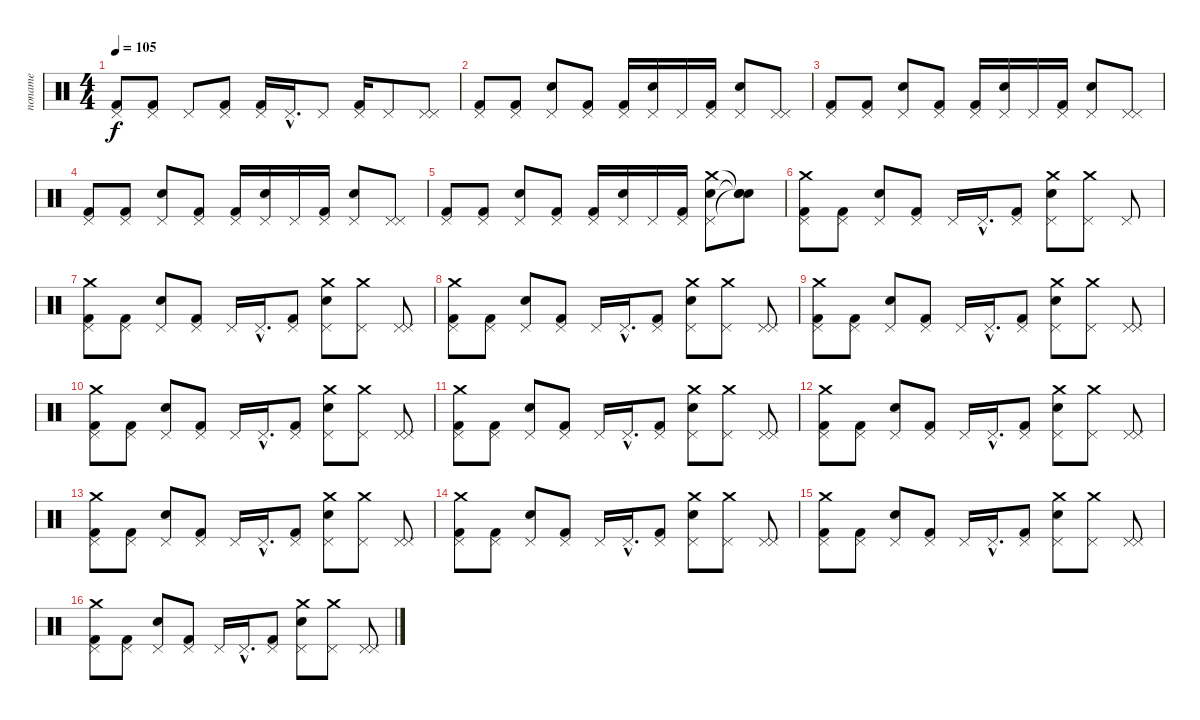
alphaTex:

\track ("noname" "noname") {instrument percussion}
\staff {score}
\articulation defaults
\ts (4 4)
\tempo 105
\clef neutral
\ks c
("Pedal Hi-Hat (hit)" "Kick (hit) 2").8{dy f} ("Pedal Hi-Hat (hit)" "Kick (hit) 2").8 "Pedal Hi-Hat (hit)".8 ("Pedal Hi-Hat (hit)" "Kick (hit) 2").8 ("Pedal Hi-Hat (hit)" "Kick (hit) 2").16 "Pedal Hi-Hat (hit)"{hac}.16{d} "Pedal Hi-Hat (hit)".8 ("Pedal Hi-Hat (hit)" "Kick (hit) 2").16 "Pedal Hi-Hat (hit)".8 ("Pedal Hi-Hat (hit)" "Pedal Hi-Hat (hit)").8 |
("Pedal Hi-Hat (hit)" "Kick (hit) 2").8 ("Pedal Hi-Hat (hit)" "Kick (hit) 2").8 ("Pedal Hi-Hat (hit)" "Snare (hit) 2").8 ("Pedal Hi-Hat (hit)" "Kick (hit) 2").8 ("Pedal Hi-Hat (hit)" "Kick (hit) 2").16 ("Pedal Hi-Hat (hit)" "Snare (hit) 2").16 "Pedal Hi-Hat (hit)".16 ("Pedal Hi-Hat (hit)" "Kick (hit) 2").16 ("Pedal Hi-Hat (hit)" "Snare (hit) 2").8 ("Pedal Hi-Hat (hit)" "Pedal Hi-Hat (hit)").8 |
("Pedal Hi-Hat (hit)" "Kick (hit) 2").8 ("Pedal Hi-Hat (hit)" "Kick (hit) 2").8 ("Pedal Hi-Hat (hit)" "Snare (hit) 2").8 ("Pedal Hi-Hat (hit)" "Kick (hit) 2").8 ("Pedal Hi-Hat (hit)" "Kick (hit) 2").16 ("Pedal Hi-Hat (hit)" "Snare (hit) 2").16 "Pedal Hi-Hat (hit)".16 ("Pedal Hi-Hat (hit)" "Kick (hit) 2").16 ("Pedal Hi-Hat (hit)" "Snare (hit) 2").8 ("Pedal Hi-Hat (hit)" "Pedal Hi-Hat (hit)").8 |
("Pedal Hi-Hat (hit)" "Kick (hit) 2").8 ("Pedal Hi-Hat (hit)" "Kick (hit) 2").8 ("Pedal Hi-Hat (hit)" "Snare (hit) 2").8 ("Pedal Hi-Hat (hit)" "Kick (hit) 2").8 ("Pedal Hi-Hat (hit)" "Kick (hit) 2").16 ("Pedal Hi-Hat (hit)" "Snare (hit) 2").16 "Pedal Hi-Hat (hit)".16 ("Pedal Hi-Hat (hit)" "Kick (hit) 2").16 ("Pedal Hi-Hat (hit)" "Snare (hit) 2").8 ("Pedal Hi-Hat (hit)" "Pedal Hi-Hat (hit)").8 |
("Pedal Hi-Hat (hit)" "Kick (hit) 2").8 ("Pedal Hi-Hat (hit)" "Kick (hit) 2").8 ("Pedal Hi-Hat (hit)" "Snare (hit) 2").8 ("Pedal Hi-Hat (hit)" "Kick (hit) 2").8 ("Pedal Hi-Hat (hit)" "Kick (hit) 2").16 ("Pedal Hi-Hat (hit)" "Snare (hit) 2").16 "Pedal Hi-Hat (hit)".16 ("Pedal Hi-Hat (hit)" "Kick (hit) 2").16 ("Pedal Hi-Hat (hit)" "Crash medium (hit)" "Snare (hit) 2").8 ("Snare (hit)"{t} "Snare (hit)"{t} "Snare (hit)"{t}).8 |
("Pedal Hi-Hat (hit)" "Crash medium (hit)" "Kick (hit) 2").8 ("Pedal Hi-Hat (hit)" "Kick (hit) 2").8 ("Pedal Hi-Hat (hit)" "Snare (hit) 2").8 ("Pedal Hi-Hat (hit)" "Kick (hit) 2").8 "Pedal Hi-Hat (hit)".16 "Pedal Hi-Hat (hit)"{hac}.16{d} ("Pedal Hi-Hat (hit)" "Kick (hit) 2").8 ("Pedal Hi-Hat (hit)" "Crash medium (hit)" "Snare (hit) 2").8 ("Pedal Hi-Hat (hit)" "Crash medium (hit)").8 "Pedal Hi-Hat (hit)".8 |
("Pedal Hi-Hat (hit)" "Crash medium (hit)" "Kick (hit) 2").8 ("Pedal Hi-Hat (hit)" "Kick (hit) 2").8 ("Pedal Hi-Hat (hit)" "Snare (hit) 2").8 ("Pedal Hi-Hat (hit)" "Kick (hit) 2").8 "Pedal Hi-Hat (hit)".16 "Pedal Hi-Hat (hit)"{hac}.16{d} ("Pedal Hi-Hat (hit)" "Kick (hit) 2").8 ("Pedal Hi-Hat (hit)" "Crash medium (hit)" "Snare (hit) 2").8 ("Pedal Hi-Hat (hit)" "Crash medium (hit)").8 ("Pedal Hi-Hat (hit)" "Pedal Hi-Hat (hit)").8 |
("Pedal Hi-Hat (hit)" "Crash medium (hit)" "Kick (hit) 2").8 ("Pedal Hi-Hat (hit)" "Kick (hit) 2").8 ("Pedal Hi-Hat (hit)" "Snare (hit) 2").8 ("Pedal Hi-Hat (hit)" "Kick (hit) 2").8 "Pedal Hi-Hat (hit)".16 "Pedal Hi-Hat (hit)"{hac}.16{d} ("Pedal Hi-Hat (hit)" "Kick (hit) 2").8 ("Pedal Hi-Hat (hit)" "Crash medium (hit)" "Snare (hit) 2").8 ("Pedal Hi-Hat (hit)" "Crash medium (hit)").8 ("Pedal Hi-Hat (hit)" "Pedal Hi-Hat (hit)").8 |
("Pedal Hi-Hat (hit)" "Crash medium (hit)" "Kick (hit) 2").8 ("Pedal Hi-Hat (hit)" "Kick (hit) 2").8 ("Pedal Hi-Hat (hit)" "Snare (hit) 2").8 ("Pedal Hi-Hat (hit)" "Kick (hit) 2").8 "Pedal Hi-Hat (hit)".16 "Pedal Hi-Hat (hit)"{hac}.16{d} ("Pedal Hi-Hat (hit)" "Kick (hit) 2").8 ("Pedal Hi-Hat (hit)" "Crash medium (hit)" "Snare (hit) 2").8 ("Pedal Hi-Hat (hit)" "Crash medium (hit)").8 ("Pedal Hi-Hat (hit)" "Pedal Hi-Hat (hit)").8 |
("Pedal Hi-Hat (hit)" "Crash medium (hit)" "Kick (hit) 2").8 ("Pedal Hi-Hat (hit)" "Kick (hit) 2").8 ("Pedal Hi-Hat (hit)" "Snare (hit) 2").8 ("Pedal Hi-Hat (hit)" "Kick (hit) 2").8 "Pedal Hi-Hat (hit)".16 "Pedal Hi-Hat (hit)"{hac}.16{d} ("Pedal Hi-Hat (hit)" "Kick (hit) 2").8 ("Pedal Hi-Hat (hit)" "Crash medium (hit)" "Snare (hit) 2").8 ("Pedal Hi-Hat (hit)" "Crash medium (hit)").8 ("Pedal Hi-Hat (hit)" "Pedal Hi-Hat (hit)").8 |
("Pedal Hi-Hat (hit)" "Crash medium (hit)" "Kick (hit) 2").8 ("Pedal Hi-Hat (hit)" "Kick (hit) 2").8 ("Pedal Hi-Hat (hit)" "Snare (hit) 2").8 ("Pedal Hi-Hat (hit)" "Kick (hit) 2").8 "Pedal Hi-Hat (hit)".16 "Pedal Hi-Hat (hit)"{hac}.16{d} ("Pedal Hi-Hat (hit)" "Kick (hit) 2").8 ("Pedal Hi-Hat (hit)" "Crash medium (hit)" "Snare (hit) 2").8 ("Pedal Hi-Hat (hit)" "Crash medium (hit)").8 ("Pedal Hi-Hat (hit)" "Pedal Hi-Hat (hit)").8 |
("Pedal Hi-Hat (hit)" "Crash medium (hit)" "Kick (hit) 2").8 ("Pedal Hi-Hat (hit)" "Kick (hit) 2").8 ("Pedal Hi-Hat (hit)" "Snare (hit) 2").8 ("Pedal Hi-Hat (hit)" "Kick (hit) 2").8 "Pedal Hi-Hat (hit)".16 "Pedal Hi-Hat (hit)"{hac}.16{d} ("Pedal Hi-Hat (hit)" "Kick (hit) 2").8 ("Pedal Hi-Hat (hit)" "Crash medium (hit)" "Snare (hit) 2").8 ("Pedal Hi-Hat (hit)" "Crash medium (hit)").8 ("Pedal Hi-Hat (hit)" "Pedal Hi-Hat (hit)").8 |
("Pedal Hi-Hat (hit)" "Crash medium (hit)" "Kick (hit) 2").8 ("Pedal Hi-Hat (hit)" "Kick (hit) 2").8 ("Pedal Hi-Hat (hit)" "Snare (hit) 2").8 ("Pedal Hi-Hat (hit)" "Kick (hit) 2").8 "Pedal Hi-Hat (hit)".16 "Pedal Hi-Hat (hit)"{hac}.16{d} ("Pedal Hi-Hat (hit)" "Kick (hit) 2").8 ("Pedal Hi-Hat (hit)" "Crash medium (hit)" "Snare (hit) 2").8 ("Pedal Hi-Hat (hit)" "Crash medium (hit)").8 ("Pedal Hi-Hat (hit)" "Pedal Hi-Hat (hit)").8 |
("Pedal Hi-Hat (hit)" "Crash medium (hit)" "Kick (hit) 2").8 ("Pedal Hi-Hat (hit)" "Kick (hit) 2").8 ("Pedal Hi-Hat (hit)" "Snare (hit) 2").8 ("Pedal Hi-Hat (hit)" "Kick (hit) 2").8 "Pedal Hi-Hat (hit)".16 "Pedal Hi-Hat (hit)"{hac}.16{d} ("Pedal Hi-Hat (hit)" "Kick (hit) 2").8 ("Pedal Hi-Hat (hit)" "Crash medium (hit)" "Snare (hit) 2").8 ("Pedal Hi-Hat (hit)" "Crash medium (hit)").8 ("Pedal Hi-Hat (hit)" "Pedal Hi-Hat (hit)").8 |
("Pedal Hi-Hat (hit)" "Crash medium (hit)" "Kick (hit) 2").8 ("Pedal Hi-Hat (hit)" "Kick (hit) 2").8 ("Pedal Hi-Hat (hit)" "Snare (hit) 2").8 ("Pedal Hi-Hat (hit)" "Kick (hit) 2").8 "Pedal Hi-Hat (hit)".16 "Pedal Hi-Hat (hit)"{hac}.16{d} ("Pedal Hi-Hat (hit)" "Kick (hit) 2").8 ("Pedal Hi-Hat (hit)" "Crash medium (hit)" "Snare (hit) 2").8 ("Pedal Hi-Hat (hit)" "Crash medium (hit)").8 ("Pedal Hi-Hat (hit)" "Pedal Hi-Hat (hit)").8 |
("Pedal Hi-Hat (hit)" "Crash medium (hit)" "Kick (hit) 2").8 ("Pedal Hi-Hat (hit)" "Kick (hit) 2").8 ("Pedal Hi-Hat (hit)" "Snare (hit) 2").8 ("Pedal Hi-Hat (hit)" "Kick (hit) 2").8 "Pedal Hi-Hat (hit)".16 "Pedal Hi-Hat (hit)"{hac}.16{d} ("Pedal Hi-Hat (hit)" "Kick (hit) 2").8 ("Pedal Hi-Hat (hit)" "Crash medium (hit)" "Snare (hit) 2").8 ("Pedal Hi-Hat (hit)" "Crash medium (hit)").8 ("Pedal Hi-Hat (hit)" "Pedal Hi-Hat (hit)").8
